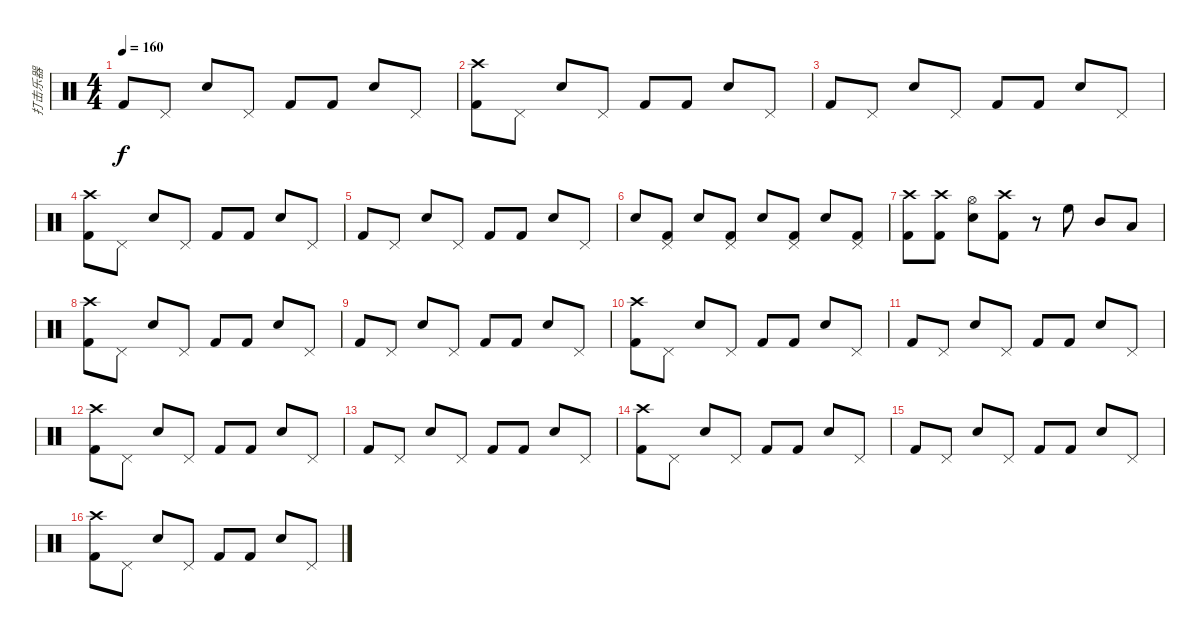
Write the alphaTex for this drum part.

\track ("打击乐器" "打击乐器") {instrument percussion}
\staff {score}
\articulation defaults
\ts (4 4)
\tempo 160
\clef neutral
\ks c "Kick (hit) 2".8{dy f} "Pedal Hi-Hat (hit)".8 "Snare (hit) 2".8 "Pedal Hi-Hat (hit)".8 "Kick (hit) 2".8 "Kick (hit) 2".8 "Snare (hit) 2".8 "Pedal Hi-Hat (hit)".8
|
("Crash high (hit)" "Kick (hit) 2").8 "Pedal Hi-Hat (hit)".8 "Snare (hit) 2".8 "Pedal Hi-Hat (hit)".8 "Kick (hit) 2".8 "Kick (hit) 2".8 "Snare (hit) 2".8 "Pedal Hi-Hat (hit)".8 |
"Kick (hit) 2".8 "Pedal Hi-Hat (hit)".8 "Snare (hit) 2".8 "Pedal Hi-Hat (hit)".8 "Kick (hit) 2".8 "Kick (hit) 2".8 "Snare (hit) 2".8 "Pedal Hi-Hat (hit)".8 |
("Crash high (hit)" "Kick (hit) 2").8 "Pedal Hi-Hat (hit)".8 "Snare (hit) 2".8 "Pedal Hi-Hat (hit)".8 "Kick (hit) 2".8 "Kick (hit) 2".8 "Snare (hit) 2".8 "Pedal Hi-Hat (hit)".8 |
"Kick (hit) 2".8 "Pedal Hi-Hat (hit)".8 "Snare (hit) 2".8 "Pedal Hi-Hat (hit)".8 "Kick (hit) 2".8 "Kick (hit) 2".8 "Snare (hit) 2".8 "Pedal Hi-Hat (hit)".8 |
"Snare (hit) 2".8 ("Pedal Hi-Hat (hit)" "Kick (hit) 2").8 "Snare (hit) 2".8 ("Pedal Hi-Hat (hit)" "Kick (hit) 2").8 "Snare (hit) 2".8 ("Pedal Hi-Hat (hit)" "Kick (hit) 2").8 "Snare (hit) 2".8 ("Pedal Hi-Hat (hit)" "Kick (hit) 2").8 |
("Crash high (hit)" "Kick (hit) 2").8 ("Crash high (hit)" "Kick (hit) 2").8 ("Hi-Hat (open)" "Snare (hit) 2").8 ("Crash high (hit)" "Kick (hit) 2").8 r.8 "High Floor Tom (hit)".8 "Mid Tom (hit)".8 "Low Tom (hit)".8 |
("Crash high (hit)" "Kick (hit) 2").8 "Pedal Hi-Hat (hit)".8 "Snare (hit) 2".8 "Pedal Hi-Hat (hit)".8 "Kick (hit) 2".8 "Kick (hit) 2".8 "Snare (hit) 2".8 "Pedal Hi-Hat (hit)".8 |
"Kick (hit) 2".8 "Pedal Hi-Hat (hit)".8 "Snare (hit) 2".8 "Pedal Hi-Hat (hit)".8 "Kick (hit) 2".8 "Kick (hit) 2".8 "Snare (hit) 2".8 "Pedal Hi-Hat (hit)".8 |
("Crash high (hit)" "Kick (hit) 2").8 "Pedal Hi-Hat (hit)".8 "Snare (hit) 2".8 "Pedal Hi-Hat (hit)".8 "Kick (hit) 2".8 "Kick (hit) 2".8 "Snare (hit) 2".8 "Pedal Hi-Hat (hit)".8 |
"Kick (hit) 2".8 "Pedal Hi-Hat (hit)".8 "Snare (hit) 2".8 "Pedal Hi-Hat (hit)".8 "Kick (hit) 2".8 "Kick (hit) 2".8 "Snare (hit) 2".8 "Pedal Hi-Hat (hit)".8 |
("Crash high (hit)" "Kick (hit) 2").8 "Pedal Hi-Hat (hit)".8 "Snare (hit) 2".8 "Pedal Hi-Hat (hit)".8 "Kick (hit) 2".8 "Kick (hit) 2".8 "Snare (hit) 2".8 "Pedal Hi-Hat (hit)".8 |
"Kick (hit) 2".8 "Pedal Hi-Hat (hit)".8 "Snare (hit) 2".8 "Pedal Hi-Hat (hit)".8 "Kick (hit) 2".8 "Kick (hit) 2".8 "Snare (hit) 2".8 "Pedal Hi-Hat (hit)".8 |
("Crash high (hit)" "Kick (hit) 2").8 "Pedal Hi-Hat (hit)".8 "Snare (hit) 2".8 "Pedal Hi-Hat (hit)".8 "Kick (hit) 2".8 "Kick (hit) 2".8 "Snare (hit) 2".8 "Pedal Hi-Hat (hit)".8 |
"Kick (hit) 2".8 "Pedal Hi-Hat (hit)".8 "Snare (hit) 2".8 "Pedal Hi-Hat (hit)".8 "Kick (hit) 2".8 "Kick (hit) 2".8 "Snare (hit) 2".8 "Pedal Hi-Hat (hit)".8 |
("Crash high (hit)" "Kick (hit) 2").8 "Pedal Hi-Hat (hit)".8 "Snare (hit) 2".8 "Pedal Hi-Hat (hit)".8 "Kick (hit) 2".8 "Kick (hit) 2".8 "Snare (hit) 2".8 "Pedal Hi-Hat (hit)".8
